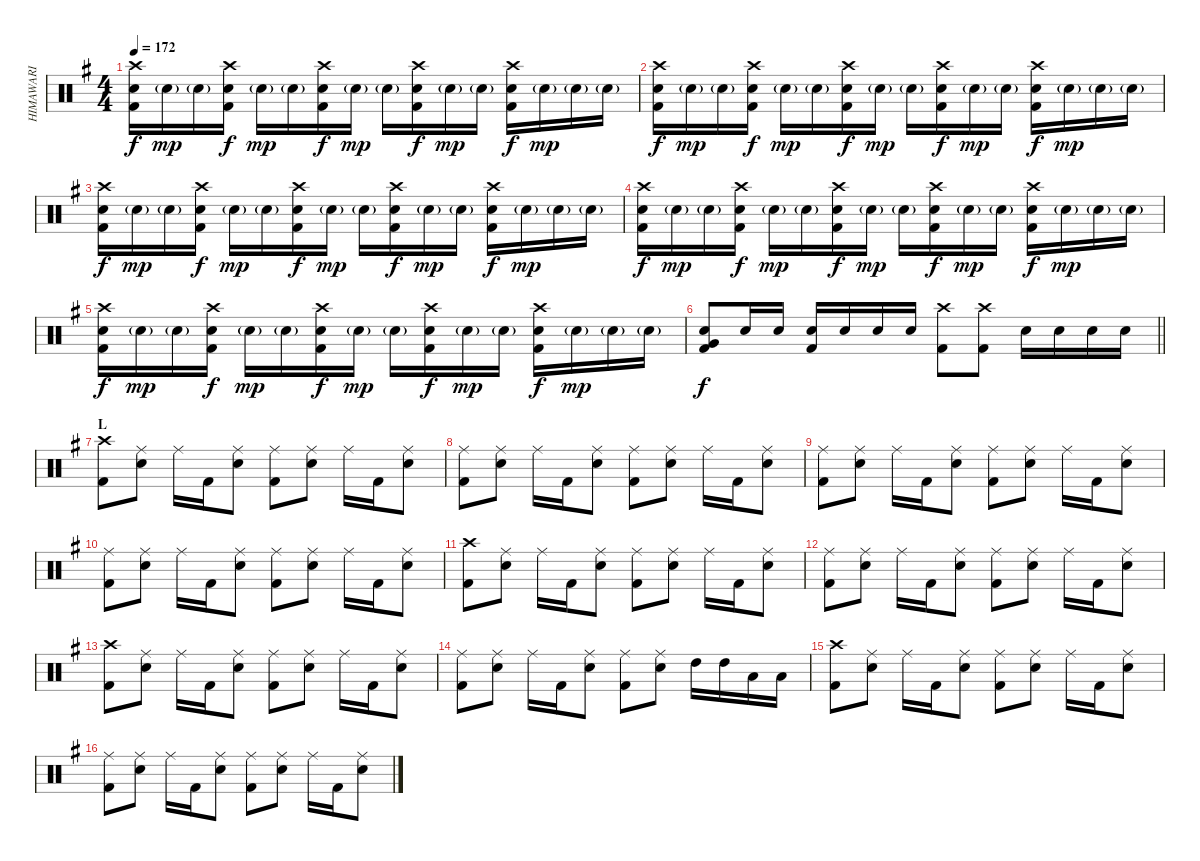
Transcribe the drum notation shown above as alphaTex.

\track ("HIMAWARI" "HIMAWARI") {instrument percussion}
\staff {score}
\articulation defaults
\ts (4 4)
\tempo 172
\clef neutral
\ks g
("Crash high (hit)" "Snare (hit) 2" "Kick (hit) 2").16{dy f} "Snare (hit) 2"{g}.16{dy mp} "Snare (hit) 2"{g}.16 ("Crash high (hit)" "Snare (hit) 2" "Kick (hit) 2").16{dy f} "Snare (hit) 2"{g}.16{dy mp} "Snare (hit) 2"{g}.16 ("Crash high (hit)" "Snare (hit) 2" "Kick (hit) 2").16{dy f} "Snare (hit) 2"{g}.16{dy mp} "Snare (hit) 2"{g}.16 ("Crash high (hit)" "Snare (hit) 2" "Kick (hit) 2").16{dy f} "Snare (hit) 2"{g}.16{dy mp} "Snare (hit) 2"{g}.16 ("Crash high (hit)" "Snare (hit) 2" "Kick (hit) 2").16{dy f} "Snare (hit) 2"{g}.16{dy mp} "Snare (hit) 2"{g}.16 "Snare (hit) 2"{g}.16 |
("Crash high (hit)" "Snare (hit) 2" "Kick (hit) 2").16{dy f} "Snare (hit) 2"{g}.16{dy mp} "Snare (hit) 2"{g}.16 ("Crash high (hit)" "Snare (hit) 2" "Kick (hit) 2").16{dy f} "Snare (hit) 2"{g}.16{dy mp} "Snare (hit) 2"{g}.16 ("Crash high (hit)" "Snare (hit) 2" "Kick (hit) 2").16{dy f} "Snare (hit) 2"{g}.16{dy mp} "Snare (hit) 2"{g}.16 ("Crash high (hit)" "Snare (hit) 2" "Kick (hit) 2").16{dy f} "Snare (hit) 2"{g}.16{dy mp} "Snare (hit) 2"{g}.16 ("Crash high (hit)" "Snare (hit) 2" "Kick (hit) 2").16{dy f} "Snare (hit) 2"{g}.16{dy mp} "Snare (hit) 2"{g}.16 "Snare (hit) 2"{g}.16 |
("Crash high (hit)" "Snare (hit) 2" "Kick (hit) 2").16{dy f} "Snare (hit) 2"{g}.16{dy mp} "Snare (hit) 2"{g}.16 ("Crash high (hit)" "Snare (hit) 2" "Kick (hit) 2").16{dy f} "Snare (hit) 2"{g}.16{dy mp} "Snare (hit) 2"{g}.16 ("Crash high (hit)" "Snare (hit) 2" "Kick (hit) 2").16{dy f} "Snare (hit) 2"{g}.16{dy mp} "Snare (hit) 2"{g}.16 ("Crash high (hit)" "Snare (hit) 2" "Kick (hit) 2").16{dy f} "Snare (hit) 2"{g}.16{dy mp} "Snare (hit) 2"{g}.16 ("Crash high (hit)" "Snare (hit) 2" "Kick (hit) 2").16{dy f} "Snare (hit) 2"{g}.16{dy mp} "Snare (hit) 2"{g}.16 "Snare (hit) 2"{g}.16 |
("Crash high (hit)" "Snare (hit) 2" "Kick (hit) 2").16{dy f} "Snare (hit) 2"{g}.16{dy mp} "Snare (hit) 2"{g}.16 ("Crash high (hit)" "Snare (hit) 2" "Kick (hit) 2").16{dy f} "Snare (hit) 2"{g}.16{dy mp} "Snare (hit) 2"{g}.16 ("Crash high (hit)" "Snare (hit) 2" "Kick (hit) 2").16{dy f} "Snare (hit) 2"{g}.16{dy mp} "Snare (hit) 2"{g}.16 ("Crash high (hit)" "Snare (hit) 2" "Kick (hit) 2").16{dy f} "Snare (hit) 2"{g}.16{dy mp} "Snare (hit) 2"{g}.16 ("Crash high (hit)" "Snare (hit) 2" "Kick (hit) 2").16{dy f} "Snare (hit) 2"{g}.16{dy mp} "Snare (hit) 2"{g}.16 "Snare (hit) 2"{g}.16 |
("Crash high (hit)" "Snare (hit) 2" "Kick (hit) 2").16{dy f} "Snare (hit) 2"{g}.16{dy mp} "Snare (hit) 2"{g}.16 ("Crash high (hit)" "Snare (hit) 2" "Kick (hit) 2").16{dy f} "Snare (hit) 2"{g}.16{dy mp} "Snare (hit) 2"{g}.16 ("Crash high (hit)" "Snare (hit) 2" "Kick (hit) 2").16{dy f} "Snare (hit) 2"{g}.16{dy mp} "Snare (hit) 2"{g}.16 ("Crash high (hit)" "Snare (hit) 2" "Kick (hit) 2").16{dy f} "Snare (hit) 2"{g}.16{dy mp} "Snare (hit) 2"{g}.16 ("Crash high (hit)" "Snare (hit) 2" "Kick (hit) 2").16{dy f} "Snare (hit) 2"{g}.16{dy mp} "Snare (hit) 2"{g}.16 "Snare (hit) 2"{g}.16 |
\barLineRight lightlight
("Very Low Tom (hit)" "Snare (hit) 2" "Kick (hit) 2").8{dy f} "Snare (hit) 2".16 "Snare (hit) 2".16 ("Snare (hit) 2" "Kick (hit) 2").16 "Snare (hit) 2".16 "Snare (hit) 2".16 "Snare (hit) 2".16 ("Crash high (hit)" "Kick (hit) 2").8 ("Crash high (hit)" "Kick (hit) 2").8 "Snare (hit) 2".16 "Snare (hit) 2".16 "Snare (hit) 2".16 "Snare (hit) 2".16 |
\section ("" "L")
("Crash high (hit)" "Kick (hit) 2").8 ("Ride (middle)" "Snare (hit) 2").8 "Ride (middle)".16 "Kick (hit) 2".16 ("Ride (middle)" "Snare (hit) 2").8 ("Ride (middle)" "Kick (hit) 2").8 ("Ride (middle)" "Snare (hit) 2").8 "Ride (middle)".16 "Kick (hit) 2".16 ("Ride (middle)" "Snare (hit) 2").8 |
("Ride (middle)" "Kick (hit) 2").8 ("Ride (middle)" "Snare (hit) 2").8 "Ride (middle)".16 "Kick (hit) 2".16 ("Ride (middle)" "Snare (hit) 2").8 ("Ride (middle)" "Kick (hit) 2").8 ("Ride (middle)" "Snare (hit) 2").8 "Ride (middle)".16 "Kick (hit) 2".16 ("Ride (middle)" "Snare (hit) 2").8 |
("Ride (middle)" "Kick (hit) 2").8 ("Ride (middle)" "Snare (hit) 2").8 "Ride (middle)".16 "Kick (hit) 2".16 ("Ride (middle)" "Snare (hit) 2").8 ("Ride (middle)" "Kick (hit) 2").8 ("Ride (middle)" "Snare (hit) 2").8 "Ride (middle)".16 "Kick (hit) 2".16 ("Ride (middle)" "Snare (hit) 2").8 |
("Ride (middle)" "Kick (hit) 2").8 ("Ride (middle)" "Snare (hit) 2").8 "Ride (middle)".16 "Kick (hit) 2".16 ("Ride (middle)" "Snare (hit) 2").8 ("Ride (middle)" "Kick (hit) 2").8 ("Ride (middle)" "Snare (hit) 2").8 "Ride (middle)".16 "Kick (hit) 2".16 ("Ride (middle)" "Snare (hit) 2").8 |
("Crash high (hit)" "Kick (hit) 2").8 ("Ride (middle)" "Snare (hit) 2").8 "Ride (middle)".16 "Kick (hit) 2".16 ("Ride (middle)" "Snare (hit) 2").8 ("Ride (middle)" "Kick (hit) 2").8 ("Ride (middle)" "Snare (hit) 2").8 "Ride (middle)".16 "Kick (hit) 2".16 ("Ride (middle)" "Snare (hit) 2").8 |
("Ride (middle)" "Kick (hit) 2").8 ("Ride (middle)" "Snare (hit) 2").8 "Ride (middle)".16 "Kick (hit) 2".16 ("Ride (middle)" "Snare (hit) 2").8 ("Ride (middle)" "Kick (hit) 2").8 ("Ride (middle)" "Snare (hit) 2").8 "Ride (middle)".16 "Kick (hit) 2".16 ("Ride (middle)" "Snare (hit) 2").8 |
("Crash high (hit)" "Kick (hit) 2").8 ("Ride (middle)" "Snare (hit) 2").8 "Ride (middle)".16 "Kick (hit) 2".16 ("Ride (middle)" "Snare (hit) 2").8 ("Ride (middle)" "Kick (hit) 2").8 ("Ride (middle)" "Snare (hit) 2").8 "Ride (middle)".16 "Kick (hit) 2".16 ("Ride (middle)" "Snare (hit) 2").8 |
("Ride (middle)" "Kick (hit) 2").8 ("Ride (middle)" "Snare (hit) 2").8 "Ride (middle)".16 "Kick (hit) 2".16 ("Ride (middle)" "Snare (hit) 2").8 ("Ride (middle)" "Kick (hit) 2").8 ("Ride (middle)" "Snare (hit) 2").8 "High Tom (hit)".16 "High Tom (hit)".16 "Low Tom (hit)".16 "Low Tom (hit)".16 |
("Crash high (hit)" "Kick (hit) 2").8 ("Ride (middle)" "Snare (hit) 2").8 "Ride (middle)".16 "Kick (hit) 2".16 ("Ride (middle)" "Snare (hit) 2").8 ("Ride (middle)" "Kick (hit) 2").8 ("Ride (middle)" "Snare (hit) 2").8 "Ride (middle)".16 "Kick (hit) 2".16 ("Ride (middle)" "Snare (hit) 2").8 |
("Ride (middle)" "Kick (hit) 2").8 ("Ride (middle)" "Snare (hit) 2").8 "Ride (middle)".16 "Kick (hit) 2".16 ("Ride (middle)" "Snare (hit) 2").8 ("Ride (middle)" "Kick (hit) 2").8 ("Ride (middle)" "Snare (hit) 2").8 "Ride (middle)".16 "Kick (hit) 2".16 ("Ride (middle)" "Snare (hit) 2").8
